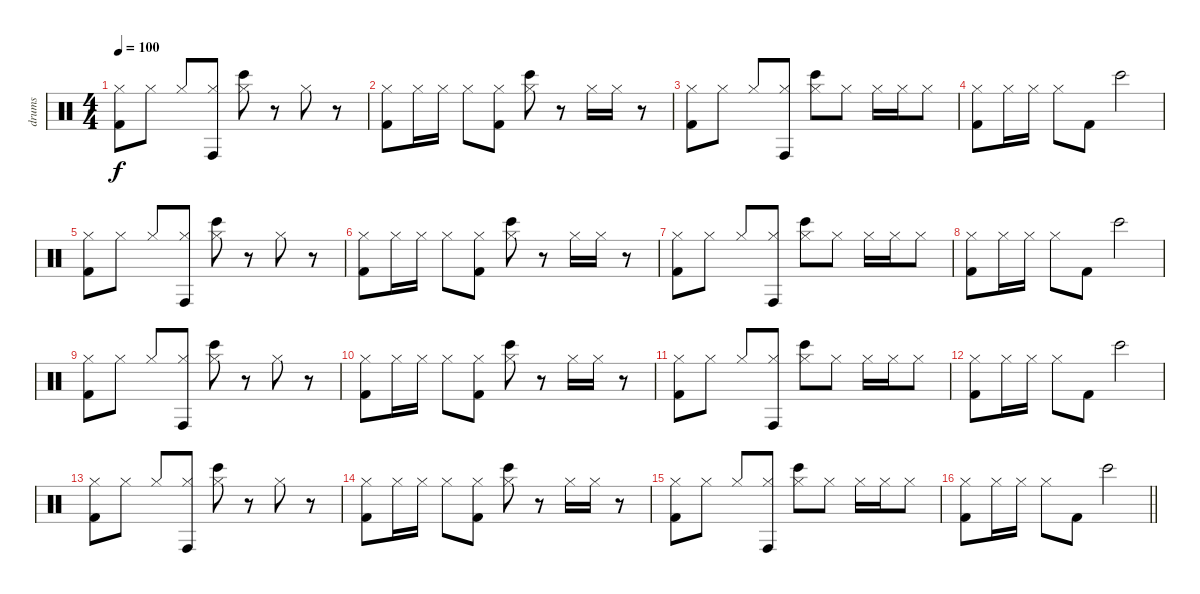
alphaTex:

\track ("drums" "drums") {instrument percussion}
\staff {score}
\articulation defaults
\ts (4 4)
\tempo 100
\clef neutral
\ks c
("Hi-Hat (closed)" "Kick (hit) 2").8{dy f} "Hi-Hat (closed)".8 "Hi-Hat (closed)".8 ("Hi-Hat (closed)" "Conga high (hit)").8 ("Hi-Hat (closed)" "Bongo High (hit)").8 r.8 "Hi-Hat (closed)".8 r.8 |
("Hi-Hat (closed)" "Kick (hit) 2").8 "Hi-Hat (closed)".16 "Hi-Hat (closed)".16 "Hi-Hat (closed)".8 ("Hi-Hat (closed)" "Kick (hit) 2").8 ("Hi-Hat (closed)" "Bongo High (hit)").8 r.8 "Hi-Hat (closed)".16 "Hi-Hat (closed)".16 r.8 |
("Hi-Hat (closed)" "Kick (hit) 2").8 "Hi-Hat (closed)".8 "Hi-Hat (closed)".8 ("Hi-Hat (closed)" "Conga high (hit)").8 ("Hi-Hat (closed)" "Bongo High (hit)").8 "Hi-Hat (closed)".8 "Hi-Hat (closed)".16 "Hi-Hat (closed)".16 "Hi-Hat (closed)".8 |
("Hi-Hat (closed)" "Kick (hit) 2").8 "Hi-Hat (closed)".16 "Hi-Hat (closed)".16 "Hi-Hat (closed)".8 "Kick (hit) 2".8 "Bongo High (hit)".2 |
("Hi-Hat (closed)" "Kick (hit) 2").8 "Hi-Hat (closed)".8 "Hi-Hat (closed)".8 ("Hi-Hat (closed)" "Conga high (hit)").8 ("Hi-Hat (closed)" "Bongo High (hit)").8 r.8 "Hi-Hat (closed)".8 r.8 |
("Hi-Hat (closed)" "Kick (hit) 2").8 "Hi-Hat (closed)".16 "Hi-Hat (closed)".16 "Hi-Hat (closed)".8 ("Hi-Hat (closed)" "Kick (hit) 2").8 ("Hi-Hat (closed)" "Bongo High (hit)").8 r.8 "Hi-Hat (closed)".16 "Hi-Hat (closed)".16 r.8 |
("Hi-Hat (closed)" "Kick (hit) 2").8 "Hi-Hat (closed)".8 "Hi-Hat (closed)".8 ("Hi-Hat (closed)" "Conga high (hit)").8 ("Hi-Hat (closed)" "Bongo High (hit)").8 "Hi-Hat (closed)".8 "Hi-Hat (closed)".16 "Hi-Hat (closed)".16 "Hi-Hat (closed)".8 |
("Hi-Hat (closed)" "Kick (hit) 2").8 "Hi-Hat (closed)".16 "Hi-Hat (closed)".16 "Hi-Hat (closed)".8 "Kick (hit) 2".8 "Bongo High (hit)".2 |
("Hi-Hat (closed)" "Kick (hit) 2").8 "Hi-Hat (closed)".8 "Hi-Hat (closed)".8 ("Hi-Hat (closed)" "Conga high (hit)").8 ("Hi-Hat (closed)" "Bongo High (hit)").8 r.8 "Hi-Hat (closed)".8 r.8 |
("Hi-Hat (closed)" "Kick (hit) 2").8 "Hi-Hat (closed)".16 "Hi-Hat (closed)".16 "Hi-Hat (closed)".8 ("Hi-Hat (closed)" "Kick (hit) 2").8 ("Hi-Hat (closed)" "Bongo High (hit)").8 r.8 "Hi-Hat (closed)".16 "Hi-Hat (closed)".16 r.8 |
("Hi-Hat (closed)" "Kick (hit) 2").8 "Hi-Hat (closed)".8 "Hi-Hat (closed)".8 ("Hi-Hat (closed)" "Conga high (hit)").8 ("Hi-Hat (closed)" "Bongo High (hit)").8 "Hi-Hat (closed)".8 "Hi-Hat (closed)".16 "Hi-Hat (closed)".16 "Hi-Hat (closed)".8 |
("Hi-Hat (closed)" "Kick (hit) 2").8 "Hi-Hat (closed)".16 "Hi-Hat (closed)".16 "Hi-Hat (closed)".8 "Kick (hit) 2".8 "Bongo High (hit)".2 |
("Hi-Hat (closed)" "Kick (hit) 2").8{volume 0} "Hi-Hat (closed)".8 "Hi-Hat (closed)".8 ("Hi-Hat (closed)" "Conga high (hit)").8 ("Hi-Hat (closed)" "Bongo High (hit)").8 r.8 "Hi-Hat (closed)".8 r.8 |
("Hi-Hat (closed)" "Kick (hit) 2").8 "Hi-Hat (closed)".16 "Hi-Hat (closed)".16 "Hi-Hat (closed)".8 ("Hi-Hat (closed)" "Kick (hit) 2").8 ("Hi-Hat (closed)" "Bongo High (hit)").8 r.8 "Hi-Hat (closed)".16 "Hi-Hat (closed)".16 r.8 |
("Hi-Hat (closed)" "Kick (hit) 2").8 "Hi-Hat (closed)".8 "Hi-Hat (closed)".8 ("Hi-Hat (closed)" "Conga high (hit)").8 ("Hi-Hat (closed)" "Bongo High (hit)").8 "Hi-Hat (closed)".8 "Hi-Hat (closed)".16 "Hi-Hat (closed)".16 "Hi-Hat (closed)".8 |
\barLineRight lightlight
("Hi-Hat (closed)" "Kick (hit) 2").8 "Hi-Hat (closed)".16 "Hi-Hat (closed)".16 "Hi-Hat (closed)".8 "Kick (hit) 2".8 "Bongo High (hit)".2
